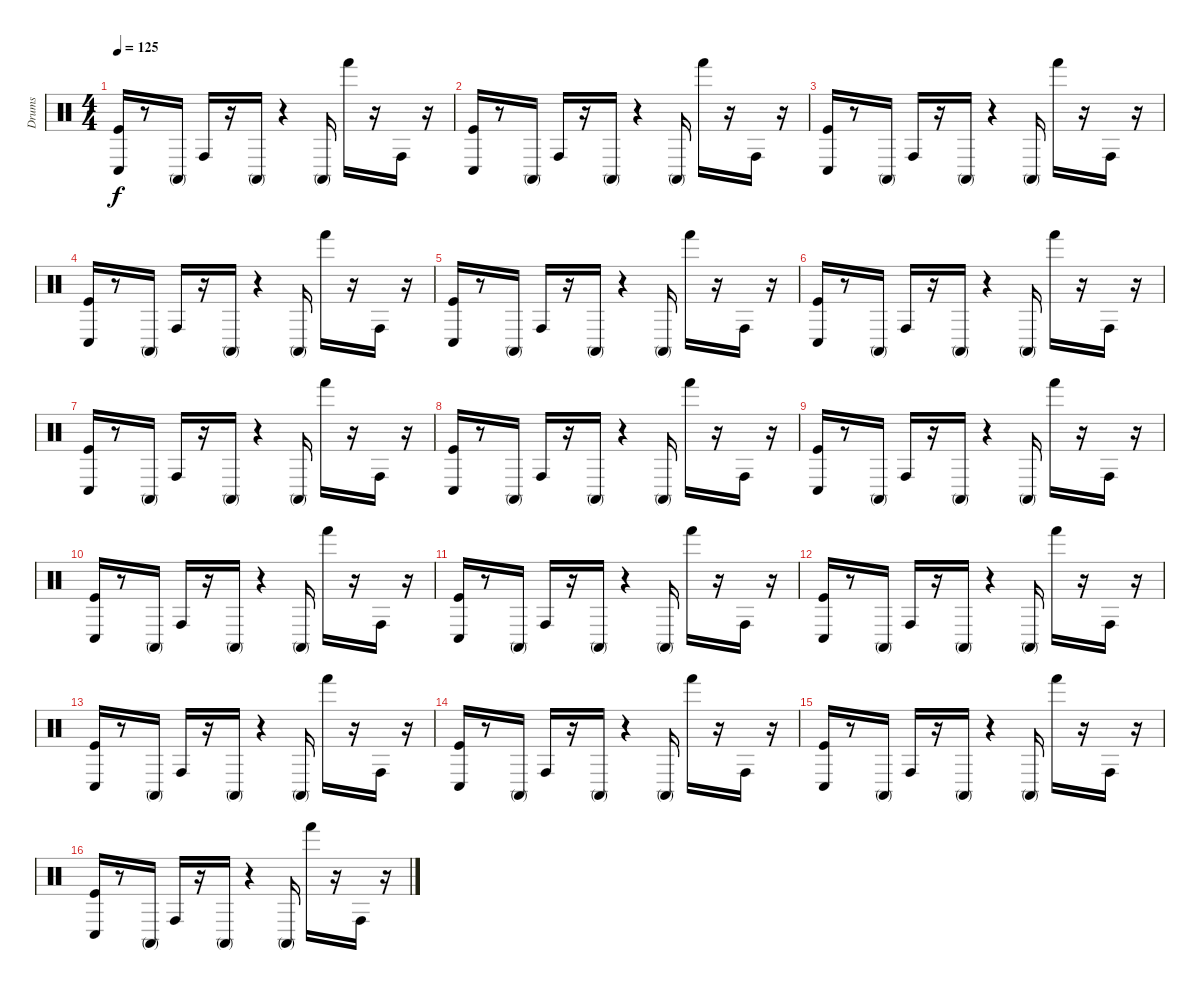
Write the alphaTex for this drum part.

\track ("Drums" "Drums") {instrument percussion}
\staff {score}
\articulation defaults
\ts (4 4)
\tempo 125
\clef neutral
\ks c
("Kick (hit)" "Conga low (hit)").16{dy f} r.8 "Conga high (mute)".16 "Conga high (hit)".16 r.16 "Conga high (mute)".16 r.4 "Conga high (mute)".16 "Hand (hit)".16 r.16 "Conga high (hit)".16 r.16 |
("Kick (hit)" "Conga low (hit)").16 r.8 "Conga high (mute)".16 "Conga high (hit)".16 r.16 "Conga high (mute)".16 r.4 "Conga high (mute)".16 "Hand (hit)".16 r.16 "Conga high (hit)".16 r.16 |
("Kick (hit)" "Conga low (hit)").16 r.8 "Conga high (mute)".16 "Conga high (hit)".16 r.16 "Conga high (mute)".16 r.4 "Conga high (mute)".16 "Hand (hit)".16 r.16 "Conga high (hit)".16 r.16 |
("Kick (hit)" "Conga low (hit)").16 r.8 "Conga high (mute)".16 "Conga high (hit)".16 r.16 "Conga high (mute)".16 r.4 "Conga high (mute)".16 "Hand (hit)".16 r.16 "Conga high (hit)".16 r.16 |
("Kick (hit)" "Conga low (hit)").16 r.8 "Conga high (mute)".16 "Conga high (hit)".16 r.16 "Conga high (mute)".16 r.4 "Conga high (mute)".16 "Hand (hit)".16 r.16 "Conga high (hit)".16 r.16 |
("Kick (hit)" "Conga low (hit)").16 r.8 "Conga high (mute)".16 "Conga high (hit)".16 r.16 "Conga high (mute)".16 r.4 "Conga high (mute)".16 "Hand (hit)".16 r.16 "Conga high (hit)".16 r.16 |
("Kick (hit)" "Conga low (hit)").16 r.8 "Conga high (mute)".16 "Conga high (hit)".16 r.16 "Conga high (mute)".16 r.4 "Conga high (mute)".16 "Hand (hit)".16 r.16 "Conga high (hit)".16 r.16 |
("Kick (hit)" "Conga low (hit)").16 r.8 "Conga high (mute)".16 "Conga high (hit)".16 r.16 "Conga high (mute)".16 r.4 "Conga high (mute)".16 "Hand (hit)".16 r.16 "Conga high (hit)".16 r.16 |
("Kick (hit)" "Conga low (hit)").16 r.8 "Conga high (mute)".16 "Conga high (hit)".16 r.16 "Conga high (mute)".16 r.4 "Conga high (mute)".16 "Hand (hit)".16 r.16 "Conga high (hit)".16 r.16 |
("Kick (hit)" "Conga low (hit)").16 r.8 "Conga high (mute)".16 "Conga high (hit)".16 r.16 "Conga high (mute)".16 r.4 "Conga high (mute)".16 "Hand (hit)".16 r.16 "Conga high (hit)".16 r.16 |
("Kick (hit)" "Conga low (hit)").16 r.8 "Conga high (mute)".16 "Conga high (hit)".16 r.16 "Conga high (mute)".16 r.4 "Conga high (mute)".16 "Hand (hit)".16 r.16 "Conga high (hit)".16 r.16 |
("Kick (hit)" "Conga low (hit)").16 r.8 "Conga high (mute)".16 "Conga high (hit)".16 r.16 "Conga high (mute)".16 r.4 "Conga high (mute)".16 "Hand (hit)".16 r.16 "Conga high (hit)".16 r.16 |
("Kick (hit)" "Conga low (hit)").16 r.8 "Conga high (mute)".16 "Conga high (hit)".16 r.16 "Conga high (mute)".16 r.4 "Conga high (mute)".16 "Hand (hit)".16 r.16 "Conga high (hit)".16 r.16 |
("Kick (hit)" "Conga low (hit)").16 r.8 "Conga high (mute)".16 "Conga high (hit)".16 r.16 "Conga high (mute)".16 r.4 "Conga high (mute)".16 "Hand (hit)".16 r.16 "Conga high (hit)".16 r.16 |
("Kick (hit)" "Conga low (hit)").16 r.8 "Conga high (mute)".16 "Conga high (hit)".16 r.16 "Conga high (mute)".16 r.4 "Conga high (mute)".16 "Hand (hit)".16 r.16 "Conga high (hit)".16 r.16 |
("Kick (hit)" "Conga low (hit)").16 r.8 "Conga high (mute)".16 "Conga high (hit)".16 r.16 "Conga high (mute)".16 r.4 "Conga high (mute)".16 "Hand (hit)".16 r.16 "Conga high (hit)".16 r.16
